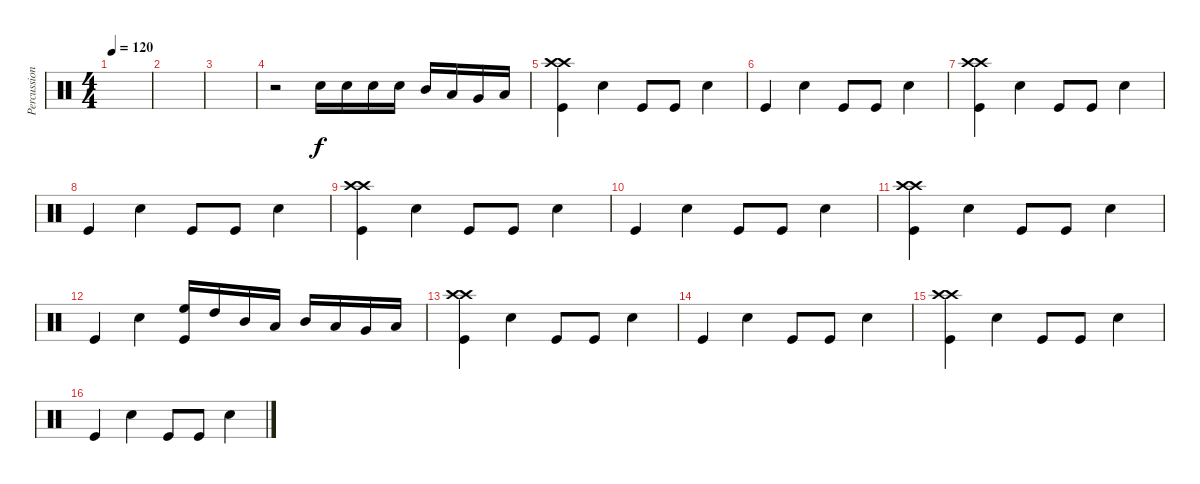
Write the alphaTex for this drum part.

\track ("Percussion" "Percussion") {instrument percussion}
\staff {score}
\articulation defaults
\ts (4 4)
\tempo 120
\clef neutral
\ks c
|
|
|
r.2 "Snare (hit) 2".16 "Snare (hit) 2".16 "Snare (hit) 2".16 "Snare (hit) 2".16 "Mid Tom (hit)".16 "Low Tom (hit)".16 "Very Low Tom (hit)".16 "Low Floor Tom (hit)".16 |
("Crash high (hit)" "Crash high (hit)" "Kick (hit)").4 "Snare (hit) 2".4 "Kick (hit)".8 "Kick (hit)".8 "Snare (hit) 2".4 |
"Kick (hit)".4 "Snare (hit) 2".4 "Kick (hit)".8 "Kick (hit)".8 "Snare (hit) 2".4 |
("Crash high (hit)" "Crash high (hit)" "Kick (hit)").4 "Snare (hit) 2".4 "Kick (hit)".8 "Kick (hit)".8 "Snare (hit) 2".4 |
"Kick (hit)".4 "Snare (hit) 2".4 "Kick (hit)".8 "Kick (hit)".8 "Snare (hit) 2".4 |
("Crash high (hit)" "Crash high (hit)" "Kick (hit)").4 "Snare (hit) 2".4 "Kick (hit)".8 "Kick (hit)".8 "Snare (hit) 2".4 |
"Kick (hit)".4 "Snare (hit) 2".4 "Kick (hit)".8 "Kick (hit)".8 "Snare (hit) 2".4 |
("Crash high (hit)" "Crash high (hit)" "Kick (hit)").4 "Snare (hit) 2".4 "Kick (hit)".8 "Kick (hit)".8 "Snare (hit) 2".4 |
"Kick (hit)".4 "Snare (hit) 2".4 ("High Floor Tom (hit)" "Kick (hit)").16 "High Tom (hit)".16 "Mid Tom (hit)".16 "Low Tom (hit)".16 "Mid Tom (hit)".16 "Low Tom (hit)".16 "Very Low Tom (hit)".16 "Low Floor Tom (hit)".16 |
("Crash high (hit)" "Crash high (hit)" "Kick (hit)").4 "Snare (hit) 2".4 "Kick (hit)".8 "Kick (hit)".8 "Snare (hit) 2".4 |
"Kick (hit)".4 "Snare (hit) 2".4 "Kick (hit)".8 "Kick (hit)".8 "Snare (hit) 2".4 |
("Crash high (hit)" "Crash high (hit)" "Kick (hit)").4 "Snare (hit) 2".4 "Kick (hit)".8 "Kick (hit)".8 "Snare (hit) 2".4 |
"Kick (hit)".4 "Snare (hit) 2".4 "Kick (hit)".8 "Kick (hit)".8 "Snare (hit) 2".4
